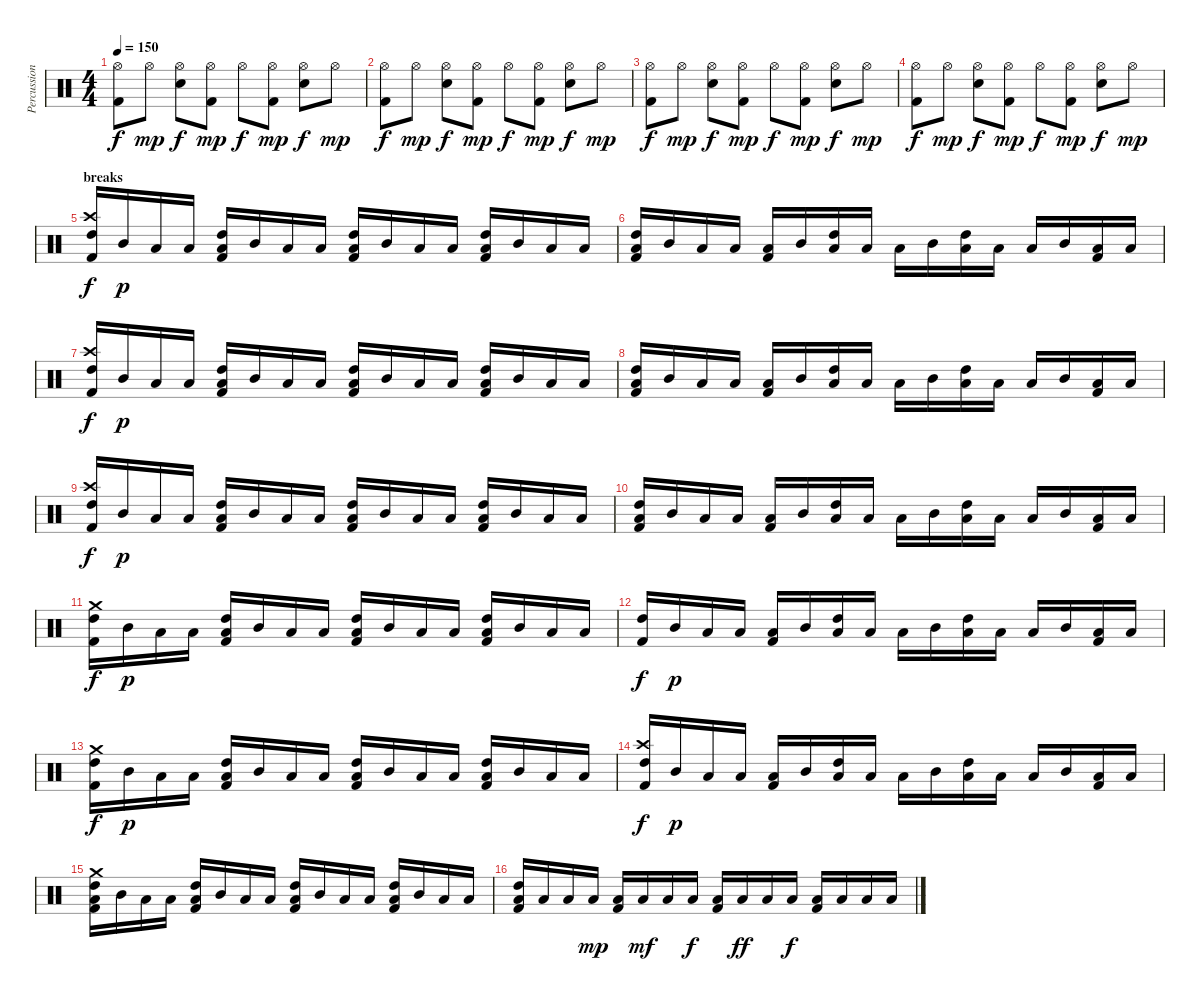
\track ("Percussions" "Percussion") {instrument percussion}
\staff {score}
\articulation defaults
\ts (4 4)
\tempo 150
\clef neutral
\ks c
("Hi-Hat (open)" "Kick (hit) 2").8{dy f} "Hi-Hat (open)".8{dy mp} ("Hi-Hat (open)" "Electric Snare (hit)").8{dy f} ("Hi-Hat (open)" "Kick (hit) 2").8{dy mp} "Hi-Hat (open)".8{dy f} ("Hi-Hat (open)" "Kick (hit) 2").8{dy mp} ("Hi-Hat (open)" "Electric Snare (hit)").8{dy f} "Hi-Hat (open)".8{dy mp} |
("Hi-Hat (open)" "Kick (hit) 2").8{dy f} "Hi-Hat (open)".8{dy mp} ("Hi-Hat (open)" "Electric Snare (hit)").8{dy f} ("Hi-Hat (open)" "Kick (hit) 2").8{dy mp} "Hi-Hat (open)".8{dy f} ("Hi-Hat (open)" "Kick (hit) 2").8{dy mp} ("Hi-Hat (open)" "Electric Snare (hit)").8{dy f} "Hi-Hat (open)".8{dy mp} |
("Hi-Hat (open)" "Kick (hit) 2").8{dy f} "Hi-Hat (open)".8{dy mp} ("Hi-Hat (open)" "Electric Snare (hit)").8{dy f} ("Hi-Hat (open)" "Kick (hit) 2").8{dy mp} "Hi-Hat (open)".8{dy f} ("Hi-Hat (open)" "Kick (hit) 2").8{dy mp} ("Hi-Hat (open)" "Electric Snare (hit)").8{dy f} "Hi-Hat (open)".8{dy mp} |
("Hi-Hat (open)" "Kick (hit) 2").8{dy f} "Hi-Hat (open)".8{dy mp} ("Hi-Hat (open)" "Electric Snare (hit)").8{dy f} ("Hi-Hat (open)" "Kick (hit) 2").8{dy mp} "Hi-Hat (open)".8{dy f} ("Hi-Hat (open)" "Kick (hit) 2").8{dy mp} ("Hi-Hat (open)" "Electric Snare (hit)").8{dy f} "Hi-Hat (open)".8{dy mp} |
\section ("" "breaks")
("Crash high (hit)" "High Tom (hit)" "Kick (hit) 2").16{dy f} "Mid Tom (hit)".16{dy p} "Low Tom (hit)".16 "Low Tom (hit)".16 ("High Tom (hit)" "Low Floor Tom (hit)" "Kick (hit) 2").16 "Mid Tom (hit)".16 "Low Tom (hit)".16 "Low Tom (hit)".16 ("High Tom (hit)" "Low Floor Tom (hit)" "Kick (hit) 2").16 "Mid Tom (hit)".16 "Low Tom (hit)".16 "Low Tom (hit)".16 ("High Tom (hit)" "Low Floor Tom (hit)" "Kick (hit) 2").16 "Mid Tom (hit)".16 "Low Tom (hit)".16 "Low Tom (hit)".16 |
("High Tom (hit)" "Low Floor Tom (hit)" "Kick (hit) 2").16 "Mid Tom (hit)".16 "Low Tom (hit)".16 "Low Tom (hit)".16 ("Low Tom (hit)" "Kick (hit) 2").16 "Mid Tom (hit)".16 ("High Tom (hit)" "Low Tom (hit)").16 "Low Tom (hit)".16 "Low Floor Tom (hit)".16 "Mid Tom (hit)".16 ("High Tom (hit)" "Low Tom (hit)").16 "Low Tom (hit)".16 "Low Floor Tom (hit)".16 "Mid Tom (hit)".16 ("Low Tom (hit)" "Kick (hit) 2").16 "Low Tom (hit)".16 |
("Crash high (hit)" "High Tom (hit)" "Kick (hit) 2").16{dy f} "Mid Tom (hit)".16{dy p} "Low Tom (hit)".16 "Low Tom (hit)".16 ("High Tom (hit)" "Low Floor Tom (hit)" "Kick (hit) 2").16 "Mid Tom (hit)".16 "Low Tom (hit)".16 "Low Tom (hit)".16 ("High Tom (hit)" "Low Floor Tom (hit)" "Kick (hit) 2").16 "Mid Tom (hit)".16 "Low Tom (hit)".16 "Low Tom (hit)".16 ("High Tom (hit)" "Low Floor Tom (hit)" "Kick (hit) 2").16 "Mid Tom (hit)".16 "Low Tom (hit)".16 "Low Tom (hit)".16 |
("High Tom (hit)" "Low Floor Tom (hit)" "Kick (hit) 2").16 "Mid Tom (hit)".16 "Low Tom (hit)".16 "Low Tom (hit)".16 ("Low Tom (hit)" "Kick (hit) 2").16 "Mid Tom (hit)".16 ("High Tom (hit)" "Low Tom (hit)").16 "Low Tom (hit)".16 "Low Floor Tom (hit)".16 "Mid Tom (hit)".16 ("High Tom (hit)" "Low Tom (hit)").16 "Low Tom (hit)".16 "Low Floor Tom (hit)".16 "Mid Tom (hit)".16 ("Low Tom (hit)" "Kick (hit) 2").16 "Low Tom (hit)".16 |
("Crash high (hit)" "High Tom (hit)" "Kick (hit) 2").16{dy f} "Mid Tom (hit)".16{dy p} "Low Tom (hit)".16 "Low Tom (hit)".16 ("High Tom (hit)" "Low Floor Tom (hit)" "Kick (hit) 2").16 "Mid Tom (hit)".16 "Low Tom (hit)".16 "Low Tom (hit)".16 ("High Tom (hit)" "Low Floor Tom (hit)" "Kick (hit) 2").16 "Mid Tom (hit)".16 "Low Tom (hit)".16 "Low Tom (hit)".16 ("High Tom (hit)" "Low Floor Tom (hit)" "Kick (hit) 2").16 "Mid Tom (hit)".16 "Low Tom (hit)".16 "Low Tom (hit)".16 |
("High Tom (hit)" "Low Floor Tom (hit)" "Kick (hit) 2").16 "Mid Tom (hit)".16 "Low Tom (hit)".16 "Low Tom (hit)".16 ("Low Tom (hit)" "Kick (hit) 2").16 "Mid Tom (hit)".16 ("High Tom (hit)" "Low Tom (hit)").16 "Low Tom (hit)".16 "Low Floor Tom (hit)".16 "Mid Tom (hit)".16 ("High Tom (hit)" "Low Tom (hit)").16 "Low Tom (hit)".16 "Low Floor Tom (hit)".16 "Mid Tom (hit)".16 ("Low Tom (hit)" "Kick (hit) 2").16 "Low Tom (hit)".16 |
("Crash medium (hit)" "High Tom (hit)" "Kick (hit) 2").16{dy f} "Mid Tom (hit)".16{dy p} "Low Tom (hit)".16 "Low Tom (hit)".16 ("High Tom (hit)" "Low Floor Tom (hit)" "Kick (hit) 2").16 "Mid Tom (hit)".16 "Low Tom (hit)".16 "Low Tom (hit)".16 ("High Tom (hit)" "Low Floor Tom (hit)" "Kick (hit) 2").16 "Mid Tom (hit)".16 "Low Tom (hit)".16 "Low Tom (hit)".16 ("High Tom (hit)" "Low Floor Tom (hit)" "Kick (hit) 2").16 "Mid Tom (hit)".16 "Low Tom (hit)".16 "Low Tom (hit)".16 |
("High Tom (hit)" "Kick (hit) 2").16{dy f} "Mid Tom (hit)".16{dy p} "Low Tom (hit)".16 "Low Tom (hit)".16 ("Low Tom (hit)" "Kick (hit) 2").16 "Mid Tom (hit)".16 ("High Tom (hit)" "Low Tom (hit)").16 "Low Tom (hit)".16 "Low Floor Tom (hit)".16 "Mid Tom (hit)".16 ("High Tom (hit)" "Low Tom (hit)").16 "Low Tom (hit)".16 "Low Floor Tom (hit)".16 "Mid Tom (hit)".16 ("Low Tom (hit)" "Kick (hit) 2").16 "Low Tom (hit)".16 |
("Crash medium (hit)" "High Tom (hit)" "Kick (hit) 2").16{dy f} "Mid Tom (hit)".16{dy p} "Low Tom (hit)".16 "Low Tom (hit)".16 ("High Tom (hit)" "Low Floor Tom (hit)" "Kick (hit) 2").16 "Mid Tom (hit)".16 "Low Tom (hit)".16 "Low Tom (hit)".16 ("High Tom (hit)" "Low Floor Tom (hit)" "Kick (hit) 2").16 "Mid Tom (hit)".16 "Low Tom (hit)".16 "Low Tom (hit)".16 ("High Tom (hit)" "Low Floor Tom (hit)" "Kick (hit) 2").16 "Mid Tom (hit)".16 "Low Tom (hit)".16 "Low Tom (hit)".16 |
("Crash high (hit)" "High Tom (hit)" "Kick (hit) 2").16{dy f} "Mid Tom (hit)".16{dy p} "Low Tom (hit)".16 "Low Tom (hit)".16 ("Low Tom (hit)" "Kick (hit) 2").16 "Mid Tom (hit)".16 ("High Tom (hit)" "Low Tom (hit)").16 "Low Tom (hit)".16 "Low Floor Tom (hit)".16 "Mid Tom (hit)".16 ("High Tom (hit)" "Low Tom (hit)").16 "Low Tom (hit)".16 "Low Floor Tom (hit)".16 "Mid Tom (hit)".16 ("Low Tom (hit)" "Kick (hit) 2").16 "Low Tom (hit)".16 |
("Crash medium (hit)" "High Tom (hit)" "Low Floor Tom (hit)" "Kick (hit) 2").16 "Mid Tom (hit)".16 "Low Tom (hit)".16 "Low Tom (hit)".16 ("High Tom (hit)" "Low Floor Tom (hit)" "Kick (hit) 2").16 "Mid Tom (hit)".16 "Low Tom (hit)".16 "Low Tom (hit)".16 ("High Tom (hit)" "Low Floor Tom (hit)" "Kick (hit) 2").16 "Mid Tom (hit)".16 "Low Tom (hit)".16 "Low Tom (hit)".16 ("High Tom (hit)" "Low Floor Tom (hit)" "Kick (hit) 2").16 "Mid Tom (hit)".16 "Low Tom (hit)".16 "Low Tom (hit)".16 |
("High Tom (hit)" "Low Floor Tom (hit)" "Kick (hit) 2").16 "Low Tom (hit)".16 "Low Tom (hit)".16 "Low Tom (hit)".16{dy mp} ("Low Tom (hit)" "Kick (hit) 2").16 "Low Tom (hit)".16{dy mf} "Low Tom (hit)".16 "Low Tom (hit)".16{dy f} ("Low Tom (hit)" "Kick (hit) 2").16 "Low Tom (hit)".16{dy ff} "Low Tom (hit)".16 "Low Tom (hit)".16{dy f} ("Low Tom (hit)" "Kick (hit) 2").16 "Low Tom (hit)".16 "Low Tom (hit)".16 "Low Tom (hit)".16
